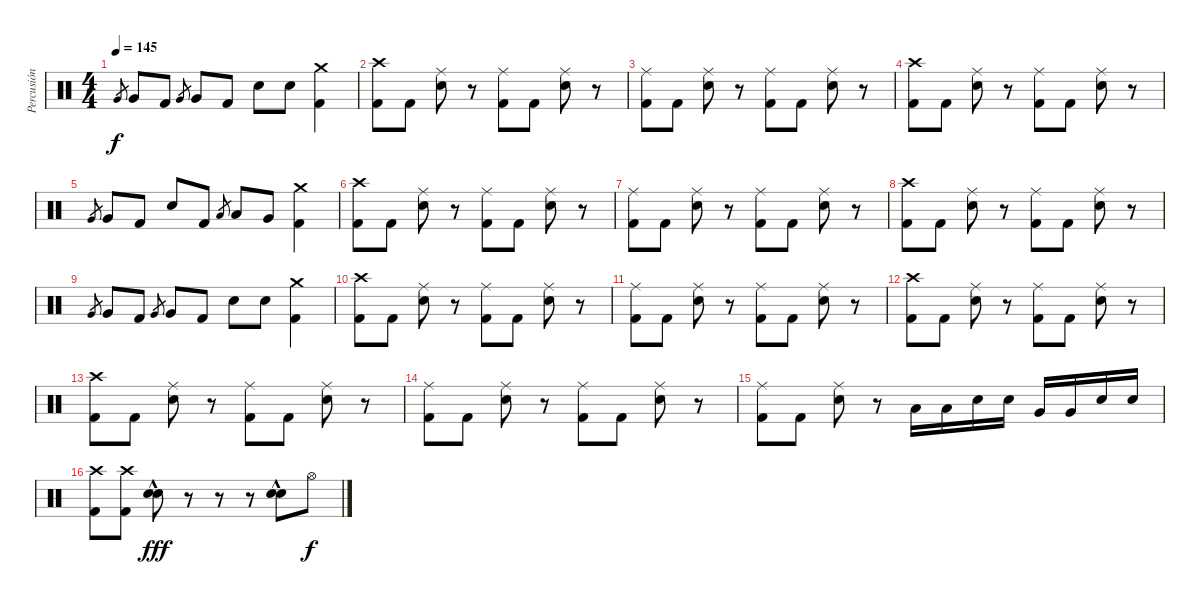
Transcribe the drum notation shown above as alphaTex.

\track ("Percusión" "Percusión") {instrument percussion}
\staff {score}
\articulation defaults
\ts (4 4)
\tempo 145
\clef neutral
\ks c "Very Low Tom (hit)".8{gr dy f} "Very Low Tom (hit)".8 "Kick (hit) 2".8 "Very Low Tom (hit)".8{gr} "Very Low Tom (hit)".8 "Kick (hit) 2".8 "Electric Snare (hit)".8 "Electric Snare (hit)".8
("Crash medium (hit)" "Kick (hit) 2").4 |
("Crash high (hit)" "Kick (hit) 2").8 "Kick (hit) 2".8 ("Ride (middle)" "Electric Snare (hit)").8 r.8 ("Ride (middle)" "Kick (hit) 2").8 "Kick (hit) 2".8 ("Ride (middle)" "Electric Snare (hit)").8 r.8 |
("Ride (middle)" "Kick (hit) 2").8 "Kick (hit) 2".8 ("Ride (middle)" "Electric Snare (hit)").8 r.8 ("Ride (middle)" "Kick (hit) 2").8 "Kick (hit) 2".8 ("Ride (middle)" "Electric Snare (hit)").8 r.8 |
("Crash high (hit)" "Kick (hit) 2").8 "Kick (hit) 2".8 ("Ride (middle)" "Electric Snare (hit)").8 r.8 ("Ride (middle)" "Kick (hit) 2").8 "Kick (hit) 2".8 ("Ride (middle)" "Electric Snare (hit)").8 r.8 |
"Very Low Tom (hit)".8{gr} "Very Low Tom (hit)".8 "Kick (hit) 2".8 "Electric Snare (hit)".8 "Kick (hit) 2".8 "Low Tom (hit)".8{gr} "Low Tom (hit)".8 "Very Low Tom (hit)".8 ("Crash medium (hit)" "Kick (hit) 2").4 |
("Crash high (hit)" "Kick (hit) 2").8 "Kick (hit) 2".8 ("Ride (middle)" "Electric Snare (hit)").8 r.8 ("Ride (middle)" "Kick (hit) 2").8 "Kick (hit) 2".8 ("Ride (middle)" "Electric Snare (hit)").8 r.8 |
("Ride (middle)" "Kick (hit) 2").8 "Kick (hit) 2".8 ("Ride (middle)" "Electric Snare (hit)").8 r.8 ("Ride (middle)" "Kick (hit) 2").8 "Kick (hit) 2".8 ("Ride (middle)" "Electric Snare (hit)").8 r.8 |
("Crash high (hit)" "Kick (hit) 2").8 "Kick (hit) 2".8 ("Ride (middle)" "Electric Snare (hit)").8 r.8 ("Ride (middle)" "Kick (hit) 2").8 "Kick (hit) 2".8 ("Ride (middle)" "Electric Snare (hit)").8 r.8 |
"Very Low Tom (hit)".8{gr} "Very Low Tom (hit)".8 "Kick (hit) 2".8 "Very Low Tom (hit)".8{gr} "Very Low Tom (hit)".8 "Kick (hit) 2".8 "Electric Snare (hit)".8 "Electric Snare (hit)".8 ("Crash medium (hit)" "Kick (hit) 2").4 |
("Crash high (hit)" "Kick (hit) 2").8 "Kick (hit) 2".8 ("Ride (middle)" "Electric Snare (hit)").8 r.8 ("Ride (middle)" "Kick (hit) 2").8 "Kick (hit) 2".8 ("Ride (middle)" "Electric Snare (hit)").8 r.8 |
("Ride (middle)" "Kick (hit) 2").8 "Kick (hit) 2".8 ("Ride (middle)" "Electric Snare (hit)").8 r.8 ("Ride (middle)" "Kick (hit) 2").8 "Kick (hit) 2".8 ("Ride (middle)" "Electric Snare (hit)").8 r.8 |
("Crash high (hit)" "Kick (hit) 2").8 "Kick (hit) 2".8 ("Ride (middle)" "Electric Snare (hit)").8 r.8 ("Ride (middle)" "Kick (hit) 2").8 "Kick (hit) 2".8 ("Ride (middle)" "Electric Snare (hit)").8 r.8 |
("Crash high (hit)" "Kick (hit) 2").8 "Kick (hit) 2".8 ("Ride (middle)" "Electric Snare (hit)").8 r.8 ("Ride (middle)" "Kick (hit) 2").8 "Kick (hit) 2".8 ("Ride (middle)" "Electric Snare (hit)").8 r.8 |
("Ride (middle)" "Kick (hit) 2").8 "Kick (hit) 2".8 ("Ride (middle)" "Electric Snare (hit)").8 r.8 ("Ride (middle)" "Kick (hit) 2").8 "Kick (hit) 2".8 ("Ride (middle)" "Electric Snare (hit)").8 r.8 |
("Ride (middle)" "Kick (hit) 2").8 "Kick (hit) 2".8 ("Ride (middle)" "Electric Snare (hit)").8 r.8 "Low Tom (hit)".16 "Low Tom (hit)".16 "Electric Snare (hit)".16 "Electric Snare (hit)".16 "Very Low Tom (hit)".16 "Very Low Tom (hit)".16 "Electric Snare (hit)".16 "Electric Snare (hit)".16 |
("Crash high (hit)" "Kick (hit) 2").8 ("Crash high (hit)" "Kick (hit) 2").8 ("Electric Snare (hit)"{hac} "Electric Snare (hit)"{hac}).8{dy fff} r.8 r.8 r.8 ("Electric Snare (hit)"{hac} "Electric Snare (hit)"{hac}).8 "Hi-Hat (open)".8{dy f}
